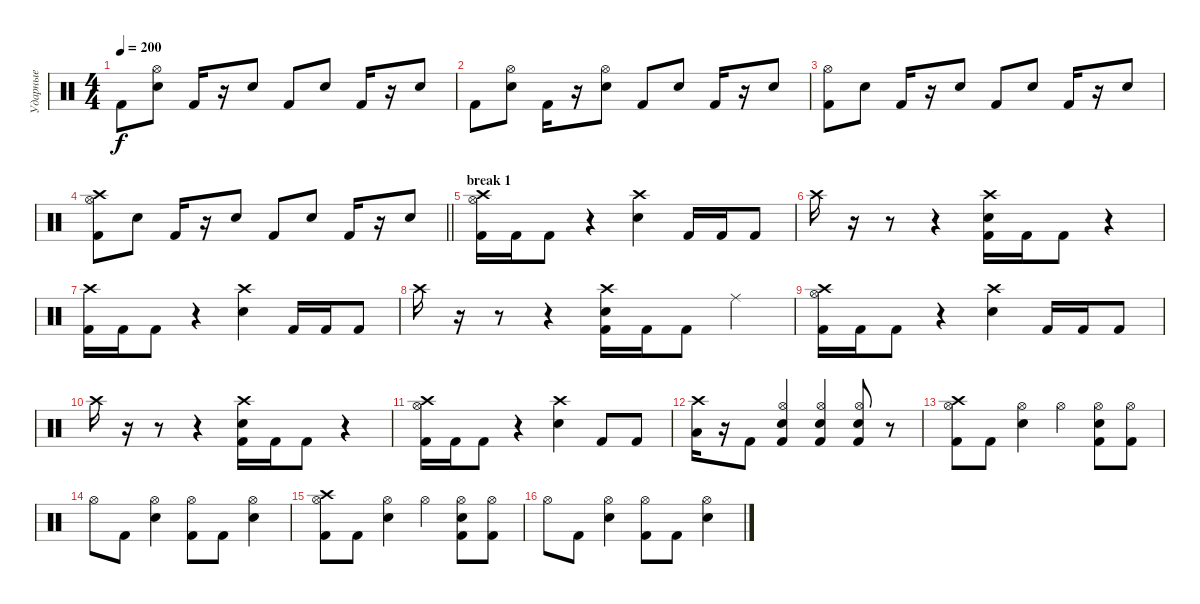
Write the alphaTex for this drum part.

\track ("Ударные" "Ударные") {instrument percussion}
\staff {score}
\articulation defaults
\ts (4 4)
\tempo 200
\clef neutral
\ks c "Kick (hit) 2".8{dy f}
("Hi-Hat (open)" "Electric Snare (hit)").8 "Kick (hit) 2".16 r.16 "Electric Snare (hit)".8 "Kick (hit) 2".8 "Electric Snare (hit)".8 "Kick (hit) 2".16 r.16 "Electric Snare (hit)".8 |
"Kick (hit) 2".8 ("Hi-Hat (open)" "Electric Snare (hit)").8 "Kick (hit) 2".16 r.16 ("Hi-Hat (open)" "Electric Snare (hit)").8 "Kick (hit) 2".8 "Electric Snare (hit)".8 "Kick (hit) 2".16 r.16 "Electric Snare (hit)".8 |
("Hi-Hat (open)" "Kick (hit) 2").8 "Electric Snare (hit)".8 "Kick (hit) 2".16 r.16 "Electric Snare (hit)".8 "Kick (hit) 2".8 "Electric Snare (hit)".8 "Kick (hit) 2".16 r.16 "Electric Snare (hit)".8 |
\barLineRight lightlight
("Hi-Hat (open)" "Crash high (hit)" "Kick (hit) 2").8 "Electric Snare (hit)".8 "Kick (hit) 2".16 r.16 "Electric Snare (hit)".8 "Kick (hit) 2".8 "Electric Snare (hit)".8 "Kick (hit) 2".16 r.16 "Electric Snare (hit)".8 |
\section ("" "break 1")
("Crash high (hit)" "Hi-Hat (open)" "Kick (hit) 2").16 "Kick (hit) 2".16 "Kick (hit) 2".8 r.4 ("Crash high (hit)" "Electric Snare (hit)").4 "Kick (hit) 2".16 "Kick (hit) 2".16 "Kick (hit) 2".8 |
"Crash high (hit)".16 r.16 r.8 r.4 ("Crash high (hit)" "Electric Snare (hit)" "Kick (hit) 2").16 "Kick (hit) 2".16 "Kick (hit) 2".8 r.4 |
("Crash high (hit)" "Kick (hit) 2").16 "Kick (hit) 2".16 "Kick (hit) 2".8 r.4 ("Crash high (hit)" "Electric Snare (hit)").4 "Kick (hit) 2".16 "Kick (hit) 2".16 "Kick (hit) 2".8 |
"Crash high (hit)".16 r.16 r.8 r.4 ("Crash high (hit)" "Electric Snare (hit)" "Kick (hit) 2").16 "Kick (hit) 2".16 "Kick (hit) 2".8 "Ride (middle)".4 |
("Crash high (hit)" "Hi-Hat (open)" "Kick (hit) 2").16 "Kick (hit) 2".16 "Kick (hit) 2".8 r.4 ("Crash high (hit)" "Electric Snare (hit)").4 "Kick (hit) 2".16 "Kick (hit) 2".16 "Kick (hit) 2".8 |
"Crash high (hit)".16 r.16 r.8 r.4 ("Crash high (hit)" "Electric Snare (hit)" "Kick (hit) 2").16 "Kick (hit) 2".16 "Kick (hit) 2".8 r.4 |
("Crash high (hit)" "Hi-Hat (open)" "Kick (hit) 2").16 "Kick (hit) 2".16 "Kick (hit) 2".8 r.4 ("Crash high (hit)" "Electric Snare (hit)").4 "Kick (hit) 2".8 "Kick (hit) 2".8 |
("Crash high (hit)" "Low Tom (hit)").16 r.16 "Kick (hit) 2".8 ("Hi-Hat (open)" "Electric Snare (hit)" "Kick (hit) 2").4 ("Hi-Hat (open)" "Electric Snare (hit)" "Kick (hit) 2").4 ("Hi-Hat (open)" "Electric Snare (hit)" "Kick (hit) 2").8 r.8 |
("Crash high (hit)" "Hi-Hat (open)" "Kick (hit) 2").8 "Kick (hit) 2".8 ("Hi-Hat (open)" "Electric Snare (hit)").4 "Hi-Hat (open)".4 ("Hi-Hat (open)" "Electric Snare (hit)" "Kick (hit) 2").8 ("Hi-Hat (open)" "Kick (hit) 2").8 |
"Hi-Hat (open)".8 "Kick (hit) 2".8 ("Hi-Hat (open)" "Electric Snare (hit)").4 ("Hi-Hat (open)" "Kick (hit) 2").8 "Kick (hit) 2".8 ("Hi-Hat (open)" "Electric Snare (hit)").4 |
("Hi-Hat (open)" "Crash high (hit)" "Kick (hit) 2").8 "Kick (hit) 2".8 ("Hi-Hat (open)" "Electric Snare (hit)").4 "Hi-Hat (open)".4 ("Hi-Hat (open)" "Electric Snare (hit)" "Kick (hit) 2").8 ("Hi-Hat (open)" "Kick (hit) 2").8 |
"Hi-Hat (open)".8 "Kick (hit) 2".8 ("Hi-Hat (open)" "Electric Snare (hit)").4 ("Hi-Hat (open)" "Kick (hit) 2").8 "Kick (hit) 2".8 ("Hi-Hat (open)" "Electric Snare (hit)").4
